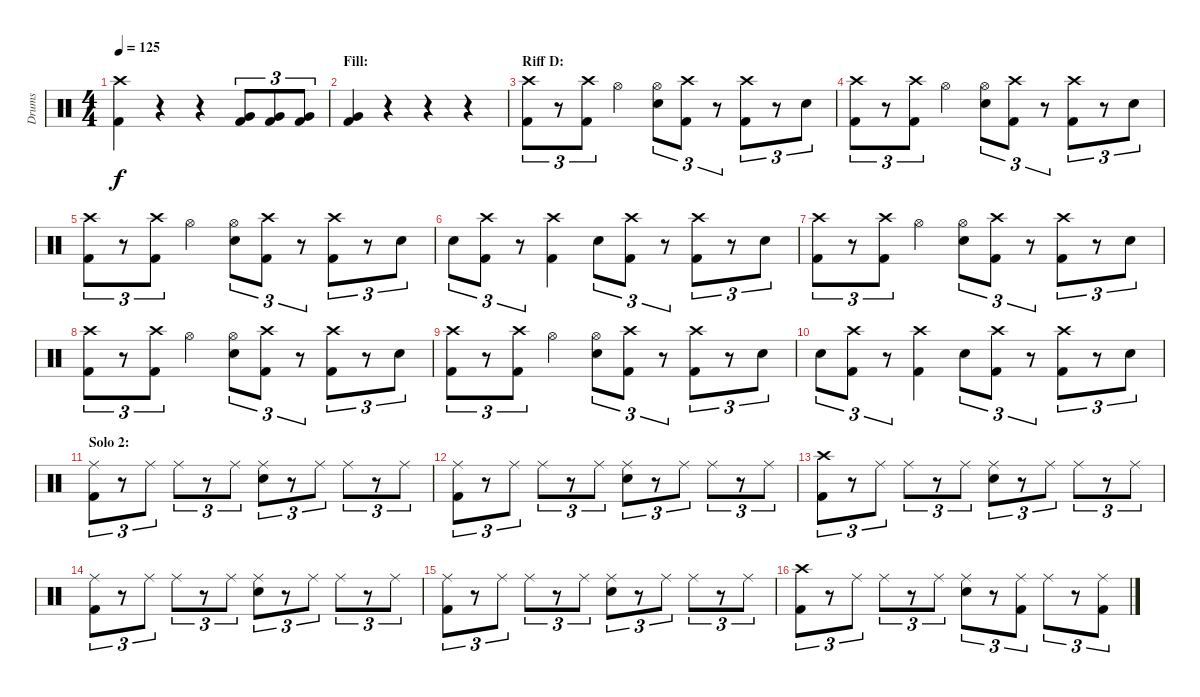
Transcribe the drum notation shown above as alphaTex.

\track ("Drums" "Drums") {instrument percussion}
\staff {score}
\articulation defaults
\ts (4 4)
\tempo 125
\clef neutral
\ks c
("Crash high (hit)" "Kick (hit) 2").4{dy f} r.4 r.4 ("Very Low Tom (hit)" "Kick (hit) 2").8{tu (3 2)} ("Very Low Tom (hit)" "Kick (hit) 2").8{tu (3 2)} ("Very Low Tom (hit)" "Kick (hit) 2").8{tu (3 2)} |
\section ("" "Fill:")
("Very Low Tom (hit)" "Kick (hit) 2").4 r.4 r.4 r.4 |
\section ("" "Riff D:")
("Crash high (hit)" "Kick (hit) 2").8{tu (3 2)} r.8{tu (3 2)} ("Crash high (hit)" "Kick (hit) 2").8{tu (3 2)} "Hi-Hat (open)".4 ("Hi-Hat (open)" "Electric Snare (hit)").8{tu (3 2)} ("Crash high (hit)" "Kick (hit) 2").8{tu (3 2)} r.8{tu (3 2)} ("Crash high (hit)" "Kick (hit) 2").8{tu (3 2)} r.8{tu (3 2)} "Electric Snare (hit)".8{tu (3 2)} |
("Crash high (hit)" "Kick (hit) 2").8{tu (3 2)} r.8{tu (3 2)} ("Crash high (hit)" "Kick (hit) 2").8{tu (3 2)} "Hi-Hat (open)".4 ("Hi-Hat (open)" "Electric Snare (hit)").8{tu (3 2)} ("Crash high (hit)" "Kick (hit) 2").8{tu (3 2)} r.8{tu (3 2)} ("Crash high (hit)" "Kick (hit) 2").8{tu (3 2)} r.8{tu (3 2)} "Electric Snare (hit)".8{tu (3 2)} |
("Crash high (hit)" "Kick (hit) 2").8{tu (3 2)} r.8{tu (3 2)} ("Crash high (hit)" "Kick (hit) 2").8{tu (3 2)} "Hi-Hat (open)".4 ("Hi-Hat (open)" "Electric Snare (hit)").8{tu (3 2)} ("Crash high (hit)" "Kick (hit) 2").8{tu (3 2)} r.8{tu (3 2)} ("Crash high (hit)" "Kick (hit) 2").8{tu (3 2)} r.8{tu (3 2)} "Electric Snare (hit)".8{tu (3 2)} |
"Electric Snare (hit)".8{tu (3 2)} ("Crash high (hit)" "Kick (hit) 2").8{tu (3 2)} r.8{tu (3 2)} ("Crash high (hit)" "Kick (hit) 2").4 "Electric Snare (hit)".8{tu (3 2)} ("Crash high (hit)" "Kick (hit) 2").8{tu (3 2)} r.8{tu (3 2)} ("Crash high (hit)" "Kick (hit) 2").8{tu (3 2)} r.8{tu (3 2)} "Electric Snare (hit)".8{tu (3 2)} |
("Crash high (hit)" "Kick (hit) 2").8{tu (3 2)} r.8{tu (3 2)} ("Crash high (hit)" "Kick (hit) 2").8{tu (3 2)} "Hi-Hat (open)".4 ("Hi-Hat (open)" "Electric Snare (hit)").8{tu (3 2)} ("Crash high (hit)" "Kick (hit) 2").8{tu (3 2)} r.8{tu (3 2)} ("Crash high (hit)" "Kick (hit) 2").8{tu (3 2)} r.8{tu (3 2)} "Electric Snare (hit)".8{tu (3 2)} |
("Crash high (hit)" "Kick (hit) 2").8{tu (3 2)} r.8{tu (3 2)} ("Crash high (hit)" "Kick (hit) 2").8{tu (3 2)} "Hi-Hat (open)".4 ("Hi-Hat (open)" "Electric Snare (hit)").8{tu (3 2)} ("Crash high (hit)" "Kick (hit) 2").8{tu (3 2)} r.8{tu (3 2)} ("Crash high (hit)" "Kick (hit) 2").8{tu (3 2)} r.8{tu (3 2)} "Electric Snare (hit)".8{tu (3 2)} |
("Crash high (hit)" "Kick (hit) 2").8{tu (3 2)} r.8{tu (3 2)} ("Crash high (hit)" "Kick (hit) 2").8{tu (3 2)} "Hi-Hat (open)".4 ("Hi-Hat (open)" "Electric Snare (hit)").8{tu (3 2)} ("Crash high (hit)" "Kick (hit) 2").8{tu (3 2)} r.8{tu (3 2)} ("Crash high (hit)" "Kick (hit) 2").8{tu (3 2)} r.8{tu (3 2)} "Electric Snare (hit)".8{tu (3 2)} |
"Electric Snare (hit)".8{tu (3 2)} ("Crash high (hit)" "Kick (hit) 2").8{tu (3 2)} r.8{tu (3 2)} ("Crash high (hit)" "Kick (hit) 2").4 "Electric Snare (hit)".8{tu (3 2)} ("Crash high (hit)" "Kick (hit) 2").8{tu (3 2)} r.8{tu (3 2)} ("Crash high (hit)" "Kick (hit) 2").8{tu (3 2)} r.8{tu (3 2)} "Electric Snare (hit)".8{tu (3 2)} |
\section ("" "Solo 2:")
("Ride (middle)" "Kick (hit) 2").8{tu (3 2)} r.8{tu (3 2)} "Ride (middle)".8{tu (3 2)} "Ride (middle)".8{tu (3 2)} r.8{tu (3 2)} "Ride (middle)".8{tu (3 2)} ("Ride (middle)" "Electric Snare (hit)").8{tu (3 2)} r.8{tu (3 2)} "Ride (middle)".8{tu (3 2)} "Ride (middle)".8{tu (3 2)} r.8{tu (3 2)} "Ride (middle)".8{tu (3 2)} |
("Ride (middle)" "Kick (hit) 2").8{tu (3 2)} r.8{tu (3 2)} "Ride (middle)".8{tu (3 2)} "Ride (middle)".8{tu (3 2)} r.8{tu (3 2)} "Ride (middle)".8{tu (3 2)} ("Ride (middle)" "Electric Snare (hit)").8{tu (3 2)} r.8{tu (3 2)} "Ride (middle)".8{tu (3 2)} "Ride (middle)".8{tu (3 2)} r.8{tu (3 2)} "Ride (middle)".8{tu (3 2)} |
("Crash high (hit)" "Kick (hit) 2").8{tu (3 2)} r.8{tu (3 2)} "Ride (middle)".8{tu (3 2)} "Ride (middle)".8{tu (3 2)} r.8{tu (3 2)} "Ride (middle)".8{tu (3 2)} ("Ride (middle)" "Electric Snare (hit)").8{tu (3 2)} r.8{tu (3 2)} "Ride (middle)".8{tu (3 2)} "Ride (middle)".8{tu (3 2)} r.8{tu (3 2)} "Ride (middle)".8{tu (3 2)} |
("Ride (middle)" "Kick (hit) 2").8{tu (3 2)} r.8{tu (3 2)} "Ride (middle)".8{tu (3 2)} "Ride (middle)".8{tu (3 2)} r.8{tu (3 2)} "Ride (middle)".8{tu (3 2)} ("Ride (middle)" "Electric Snare (hit)").8{tu (3 2)} r.8{tu (3 2)} "Ride (middle)".8{tu (3 2)} "Ride (middle)".8{tu (3 2)} r.8{tu (3 2)} "Ride (middle)".8{tu (3 2)} |
("Ride (middle)" "Kick (hit) 2").8{tu (3 2)} r.8{tu (3 2)} "Ride (middle)".8{tu (3 2)} "Ride (middle)".8{tu (3 2)} r.8{tu (3 2)} "Ride (middle)".8{tu (3 2)} ("Ride (middle)" "Electric Snare (hit)").8{tu (3 2)} r.8{tu (3 2)} "Ride (middle)".8{tu (3 2)} "Ride (middle)".8{tu (3 2)} r.8{tu (3 2)} "Ride (middle)".8{tu (3 2)} |
("Crash high (hit)" "Kick (hit) 2").8{tu (3 2)} r.8{tu (3 2)} "Ride (middle)".8{tu (3 2)} "Ride (middle)".8{tu (3 2)} r.8{tu (3 2)} "Ride (middle)".8{tu (3 2)} ("Ride (middle)" "Electric Snare (hit)").8{tu (3 2)} r.8{tu (3 2)} ("Ride (middle)" "Kick (hit) 2").8{tu (3 2)} "Ride (middle)".8{tu (3 2)} r.8{tu (3 2)} ("Ride (middle)" "Kick (hit) 2").8{tu (3 2)}
